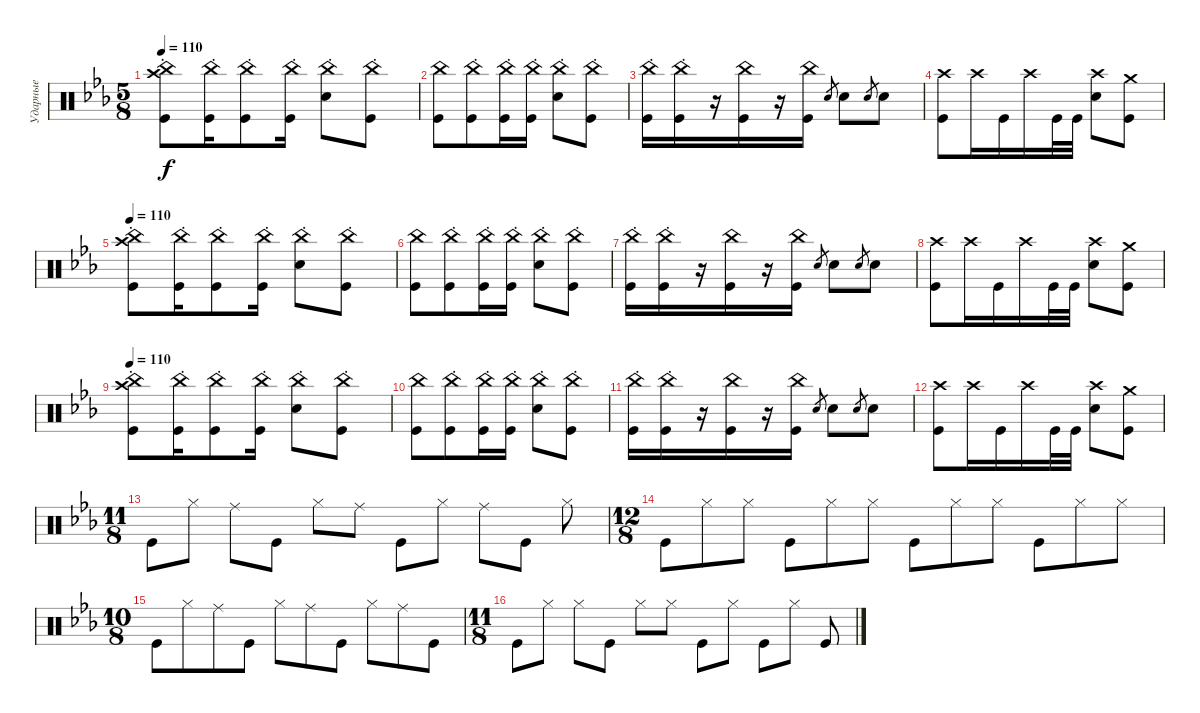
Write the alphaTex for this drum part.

\track ("Ударные" "Ударные") {instrument percussion}
\staff {score}
\articulation defaults
\ts (5 8)
\tempo 110
\clef neutral
\ks cminor
("Kick (hit)" "Crash high (hit)"{st} "China (hit)").8{dy f} ("Kick (hit)" "China (hit)"{st}).16 ("Kick (hit)" "China (hit)"{st}).8 ("Kick (hit)" "China (hit)"{st}).16 ("China (hit)"{st} "Snare (hit) 2").8 ("Kick (hit)" "China (hit)"{st}).8 |
("Kick (hit)" "China (hit)").8 ("Kick (hit)" "China (hit)"{st}).8 ("Kick (hit)" "China (hit)"{st}).16 ("Kick (hit)" "China (hit)"{st}).16 ("China (hit)"{st} "Snare (hit) 2").8 ("Kick (hit)" "China (hit)"{st}).8 |
("Kick (hit)" "China (hit)"{st}).16 ("Kick (hit)" "China (hit)"{st}).16 r.16 ("Kick (hit)" "China (hit)").16 r.16 ("Kick (hit)" "China (hit)").16 "Snare (hit) 2".8{gr} "Snare (hit) 2".8 "Snare (hit) 2".8{gr} "Snare (hit) 2".8 |
("Kick (hit)" "Crash high (hit)").8 "Crash high (hit)".16 "Kick (hit)".16 "Crash high (hit)".16 "Kick (hit)".32 "Kick (hit)".32 ("Snare (hit) 2" "Crash high (hit)").8 ("Kick (hit)" "Crash medium (hit)").8 |
\tempo 110
("Kick (hit)" "Crash high (hit)"{st} "China (hit)").8 ("Kick (hit)" "China (hit)"{st}).16 ("Kick (hit)" "China (hit)"{st}).8 ("Kick (hit)" "China (hit)"{st}).16 ("China (hit)"{st} "Snare (hit) 2").8 ("Kick (hit)" "China (hit)"{st}).8 |
("Kick (hit)" "China (hit)").8 ("Kick (hit)" "China (hit)"{st}).8 ("Kick (hit)" "China (hit)"{st}).16 ("Kick (hit)" "China (hit)"{st}).16 ("China (hit)"{st} "Snare (hit) 2").8 ("Kick (hit)" "China (hit)"{st}).8 |
("Kick (hit)" "China (hit)"{st}).16 ("Kick (hit)" "China (hit)"{st}).16 r.16 ("Kick (hit)" "China (hit)").16 r.16 ("Kick (hit)" "China (hit)").16 "Snare (hit) 2".8{gr} "Snare (hit) 2".8 "Snare (hit) 2".8{gr} "Snare (hit) 2".8 |
("Kick (hit)" "Crash high (hit)").8 "Crash high (hit)".16 "Kick (hit)".16 "Crash high (hit)".16 "Kick (hit)".32 "Kick (hit)".32 ("Snare (hit) 2" "Crash high (hit)").8 ("Kick (hit)" "Crash medium (hit)").8 |
\tempo 110
("Kick (hit)" "Crash high (hit)"{st} "China (hit)").8 ("Kick (hit)" "China (hit)"{st}).16 ("Kick (hit)" "China (hit)"{st}).8 ("Kick (hit)" "China (hit)"{st}).16 ("China (hit)"{st} "Snare (hit) 2").8 ("Kick (hit)" "China (hit)"{st}).8 |
("Kick (hit)" "China (hit)").8 ("Kick (hit)" "China (hit)"{st}).8 ("Kick (hit)" "China (hit)"{st}).16 ("Kick (hit)" "China (hit)"{st}).16 ("China (hit)"{st} "Snare (hit) 2").8 ("Kick (hit)" "China (hit)"{st}).8 |
("Kick (hit)" "China (hit)"{st}).16 ("Kick (hit)" "China (hit)"{st}).16 r.16 ("Kick (hit)" "China (hit)").16 r.16 ("Kick (hit)" "China (hit)").16 "Snare (hit) 2".8{gr} "Snare (hit) 2".8 "Snare (hit) 2".8{gr} "Snare (hit) 2".8 |
("Kick (hit)" "Crash high (hit)").8 "Crash high (hit)".16 "Kick (hit)".16 "Crash high (hit)".16 "Kick (hit)".32 "Kick (hit)".32 ("Snare (hit) 2" "Crash high (hit)").8 ("Kick (hit)" "Crash medium (hit)").8 |
\ts (11 8)
"Kick (hit)".8 "Hi-Hat (closed)".8 "Ride (middle)".8 "Kick (hit)".8 "Hi-Hat (closed)".8 "Ride (middle)".8 "Kick (hit)".8 "Hi-Hat (closed)".8 "Ride (middle)".8 "Kick (hit)".8 "Hi-Hat (closed)".8 |
\ts (12 8)
"Kick (hit)".8 "Hi-Hat (closed)".8 "Hi-Hat (closed)".8 "Kick (hit)".8 "Hi-Hat (closed)".8 "Hi-Hat (closed)".8 "Kick (hit)".8 "Hi-Hat (closed)".8 "Hi-Hat (closed)".8 "Kick (hit)".8 "Hi-Hat (closed)".8 "Hi-Hat (closed)".8 |
\ts (10 8)
"Kick (hit)".8 "Hi-Hat (closed)".8 "Ride (middle)".8 "Kick (hit)".8 "Hi-Hat (closed)".8 "Ride (middle)".8 "Kick (hit)".8 "Hi-Hat (closed)".8 "Ride (middle)".8 "Kick (hit)".8 |
\ts (11 8)
"Kick (hit)".8 "Hi-Hat (closed)".8 "Hi-Hat (closed)".8 "Kick (hit)".8 "Hi-Hat (closed)".8 "Hi-Hat (closed)".8 "Kick (hit)".8 "Hi-Hat (closed)".8 "Kick (hit)".8 "Hi-Hat (closed)".8 "Kick (hit)".8
